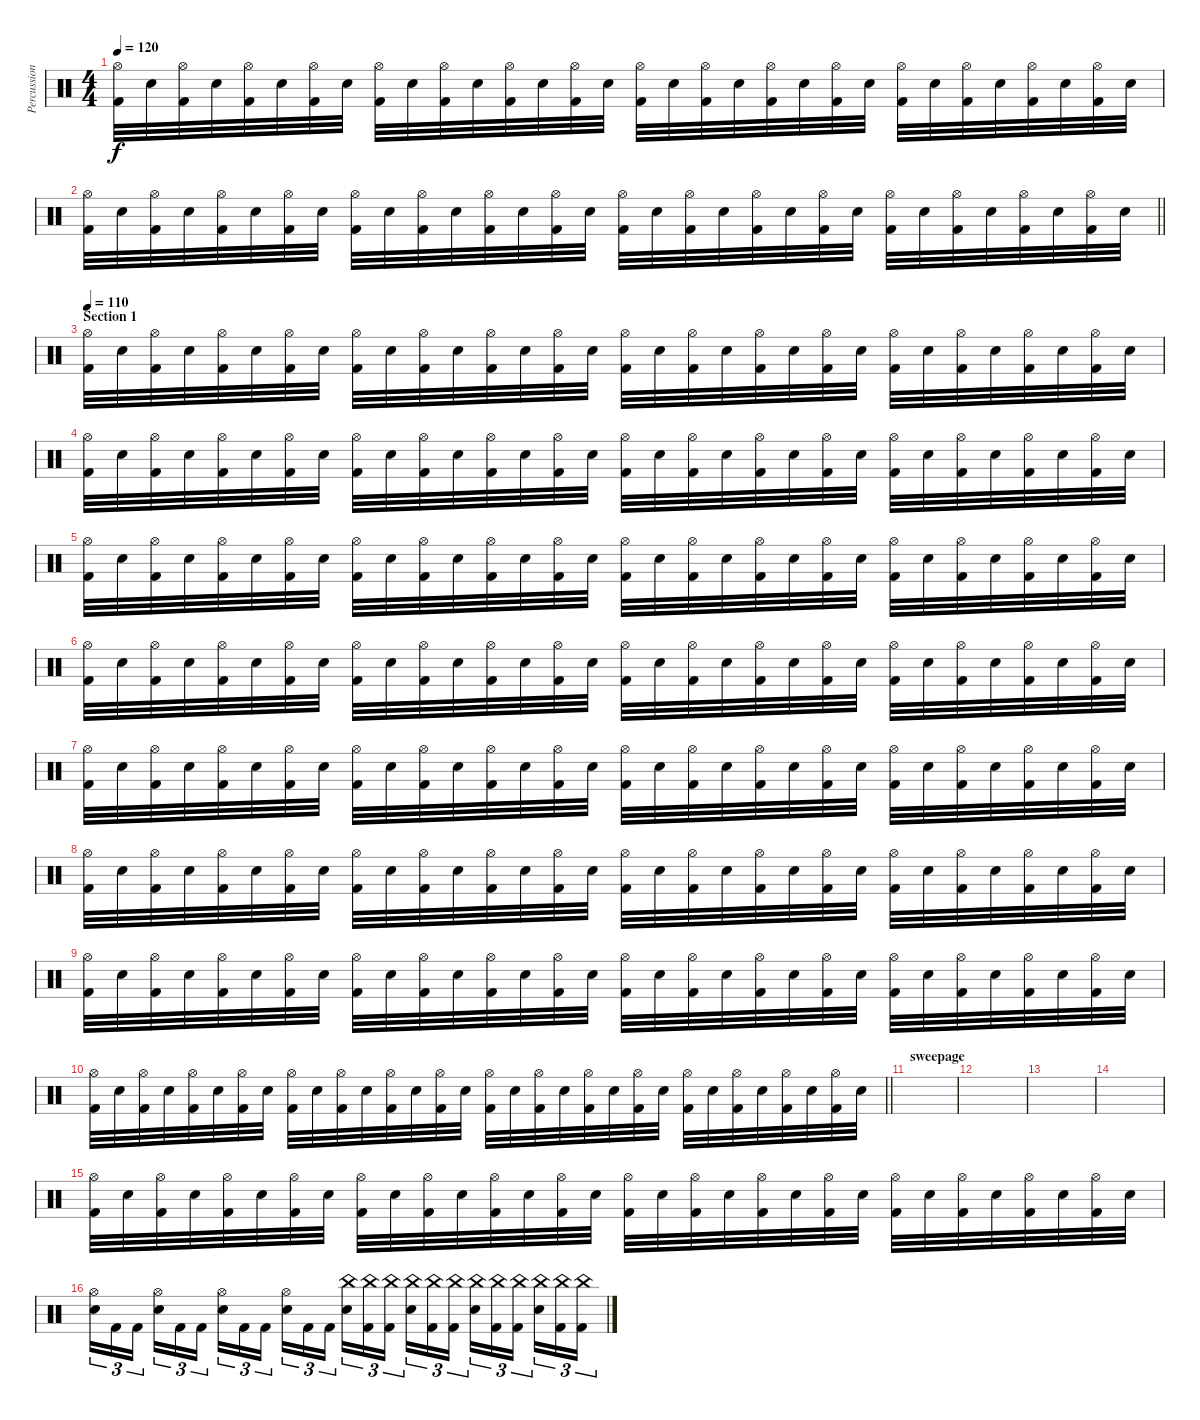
\track ("Percussion" "Percussion") {instrument percussion}
\staff {score}
\articulation defaults
\ts (4 4)
\tempo 120
\clef neutral
\ks c
("Hi-Hat (open)" "Kick (hit) 2").32{dy f} "Snare (hit) 2".32 ("Hi-Hat (open)" "Kick (hit) 2").32 "Snare (hit) 2".32 ("Hi-Hat (open)" "Kick (hit) 2").32 "Snare (hit) 2".32 ("Hi-Hat (open)" "Kick (hit) 2").32 "Snare (hit) 2".32 ("Hi-Hat (open)" "Kick (hit) 2").32 "Snare (hit) 2".32 ("Hi-Hat (open)" "Kick (hit) 2").32 "Snare (hit) 2".32 ("Hi-Hat (open)" "Kick (hit) 2").32 "Snare (hit) 2".32 ("Hi-Hat (open)" "Kick (hit) 2").32 "Snare (hit) 2".32 ("Hi-Hat (open)" "Kick (hit) 2").32 "Snare (hit) 2".32 ("Hi-Hat (open)" "Kick (hit) 2").32 "Snare (hit) 2".32 ("Hi-Hat (open)" "Kick (hit) 2").32 "Snare (hit) 2".32 ("Hi-Hat (open)" "Kick (hit) 2").32 "Snare (hit) 2".32 ("Hi-Hat (open)" "Kick (hit) 2").32 "Snare (hit) 2".32 ("Hi-Hat (open)" "Kick (hit) 2").32 "Snare (hit) 2".32 ("Hi-Hat (open)" "Kick (hit) 2").32 "Snare (hit) 2".32 ("Hi-Hat (open)" "Kick (hit) 2").32 "Snare (hit) 2".32 |
\barLineRight lightlight
("Hi-Hat (open)" "Kick (hit) 2").32 "Snare (hit) 2".32 ("Hi-Hat (open)" "Kick (hit) 2").32 "Snare (hit) 2".32 ("Hi-Hat (open)" "Kick (hit) 2").32 "Snare (hit) 2".32 ("Hi-Hat (open)" "Kick (hit) 2").32 "Snare (hit) 2".32 ("Hi-Hat (open)" "Kick (hit) 2").32 "Snare (hit) 2".32 ("Hi-Hat (open)" "Kick (hit) 2").32 "Snare (hit) 2".32 ("Hi-Hat (open)" "Kick (hit) 2").32 "Snare (hit) 2".32 ("Hi-Hat (open)" "Kick (hit) 2").32 "Snare (hit) 2".32 ("Hi-Hat (open)" "Kick (hit) 2").32 "Snare (hit) 2".32 ("Hi-Hat (open)" "Kick (hit) 2").32 "Snare (hit) 2".32 ("Hi-Hat (open)" "Kick (hit) 2").32 "Snare (hit) 2".32 ("Hi-Hat (open)" "Kick (hit) 2").32 "Snare (hit) 2".32 ("Hi-Hat (open)" "Kick (hit) 2").32 "Snare (hit) 2".32 ("Hi-Hat (open)" "Kick (hit) 2").32 "Snare (hit) 2".32 ("Hi-Hat (open)" "Kick (hit) 2").32 "Snare (hit) 2".32 ("Hi-Hat (open)" "Kick (hit) 2").32 "Snare (hit) 2".32 |
\section ("" "Section 1")
\tempo 110
("Hi-Hat (open)" "Kick (hit) 2").32 "Snare (hit) 2".32 ("Hi-Hat (open)" "Kick (hit) 2").32 "Snare (hit) 2".32 ("Hi-Hat (open)" "Kick (hit) 2").32 "Snare (hit) 2".32 ("Hi-Hat (open)" "Kick (hit) 2").32 "Snare (hit) 2".32 ("Hi-Hat (open)" "Kick (hit) 2").32 "Snare (hit) 2".32 ("Hi-Hat (open)" "Kick (hit) 2").32 "Snare (hit) 2".32 ("Hi-Hat (open)" "Kick (hit) 2").32 "Snare (hit) 2".32 ("Hi-Hat (open)" "Kick (hit) 2").32 "Snare (hit) 2".32 ("Hi-Hat (open)" "Kick (hit) 2").32 "Snare (hit) 2".32 ("Hi-Hat (open)" "Kick (hit) 2").32 "Snare (hit) 2".32 ("Hi-Hat (open)" "Kick (hit) 2").32 "Snare (hit) 2".32 ("Hi-Hat (open)" "Kick (hit) 2").32 "Snare (hit) 2".32 ("Hi-Hat (open)" "Kick (hit) 2").32 "Snare (hit) 2".32 ("Hi-Hat (open)" "Kick (hit) 2").32 "Snare (hit) 2".32 ("Hi-Hat (open)" "Kick (hit) 2").32 "Snare (hit) 2".32 ("Hi-Hat (open)" "Kick (hit) 2").32 "Snare (hit) 2".32 |
("Hi-Hat (open)" "Kick (hit) 2").32 "Snare (hit) 2".32 ("Hi-Hat (open)" "Kick (hit) 2").32 "Snare (hit) 2".32 ("Hi-Hat (open)" "Kick (hit) 2").32 "Snare (hit) 2".32 ("Hi-Hat (open)" "Kick (hit) 2").32 "Snare (hit) 2".32 ("Hi-Hat (open)" "Kick (hit) 2").32 "Snare (hit) 2".32 ("Hi-Hat (open)" "Kick (hit) 2").32 "Snare (hit) 2".32 ("Hi-Hat (open)" "Kick (hit) 2").32 "Snare (hit) 2".32 ("Hi-Hat (open)" "Kick (hit) 2").32 "Snare (hit) 2".32 ("Hi-Hat (open)" "Kick (hit) 2").32 "Snare (hit) 2".32 ("Hi-Hat (open)" "Kick (hit) 2").32 "Snare (hit) 2".32 ("Hi-Hat (open)" "Kick (hit) 2").32 "Snare (hit) 2".32 ("Hi-Hat (open)" "Kick (hit) 2").32 "Snare (hit) 2".32 ("Hi-Hat (open)" "Kick (hit) 2").32 "Snare (hit) 2".32 ("Hi-Hat (open)" "Kick (hit) 2").32 "Snare (hit) 2".32 ("Hi-Hat (open)" "Kick (hit) 2").32 "Snare (hit) 2".32 ("Hi-Hat (open)" "Kick (hit) 2").32 "Snare (hit) 2".32 |
("Hi-Hat (open)" "Kick (hit) 2").32 "Snare (hit) 2".32 ("Hi-Hat (open)" "Kick (hit) 2").32 "Snare (hit) 2".32 ("Hi-Hat (open)" "Kick (hit) 2").32 "Snare (hit) 2".32 ("Hi-Hat (open)" "Kick (hit) 2").32 "Snare (hit) 2".32 ("Hi-Hat (open)" "Kick (hit) 2").32 "Snare (hit) 2".32 ("Hi-Hat (open)" "Kick (hit) 2").32 "Snare (hit) 2".32 ("Hi-Hat (open)" "Kick (hit) 2").32 "Snare (hit) 2".32 ("Hi-Hat (open)" "Kick (hit) 2").32 "Snare (hit) 2".32 ("Hi-Hat (open)" "Kick (hit) 2").32 "Snare (hit) 2".32 ("Hi-Hat (open)" "Kick (hit) 2").32 "Snare (hit) 2".32 ("Hi-Hat (open)" "Kick (hit) 2").32 "Snare (hit) 2".32 ("Hi-Hat (open)" "Kick (hit) 2").32 "Snare (hit) 2".32 ("Hi-Hat (open)" "Kick (hit) 2").32 "Snare (hit) 2".32 ("Hi-Hat (open)" "Kick (hit) 2").32 "Snare (hit) 2".32 ("Hi-Hat (open)" "Kick (hit) 2").32 "Snare (hit) 2".32 ("Hi-Hat (open)" "Kick (hit) 2").32 "Snare (hit) 2".32 |
("Hi-Hat (open)" "Kick (hit) 2").32 "Snare (hit) 2".32 ("Hi-Hat (open)" "Kick (hit) 2").32 "Snare (hit) 2".32 ("Hi-Hat (open)" "Kick (hit) 2").32 "Snare (hit) 2".32 ("Hi-Hat (open)" "Kick (hit) 2").32 "Snare (hit) 2".32 ("Hi-Hat (open)" "Kick (hit) 2").32 "Snare (hit) 2".32 ("Hi-Hat (open)" "Kick (hit) 2").32 "Snare (hit) 2".32 ("Hi-Hat (open)" "Kick (hit) 2").32 "Snare (hit) 2".32 ("Hi-Hat (open)" "Kick (hit) 2").32 "Snare (hit) 2".32 ("Hi-Hat (open)" "Kick (hit) 2").32 "Snare (hit) 2".32 ("Hi-Hat (open)" "Kick (hit) 2").32 "Snare (hit) 2".32 ("Hi-Hat (open)" "Kick (hit) 2").32 "Snare (hit) 2".32 ("Hi-Hat (open)" "Kick (hit) 2").32 "Snare (hit) 2".32 ("Hi-Hat (open)" "Kick (hit) 2").32 "Snare (hit) 2".32 ("Hi-Hat (open)" "Kick (hit) 2").32 "Snare (hit) 2".32 ("Hi-Hat (open)" "Kick (hit) 2").32 "Snare (hit) 2".32 ("Hi-Hat (open)" "Kick (hit) 2").32 "Snare (hit) 2".32 |
("Hi-Hat (open)" "Kick (hit) 2").32 "Snare (hit) 2".32 ("Hi-Hat (open)" "Kick (hit) 2").32 "Snare (hit) 2".32 ("Hi-Hat (open)" "Kick (hit) 2").32 "Snare (hit) 2".32 ("Hi-Hat (open)" "Kick (hit) 2").32 "Snare (hit) 2".32 ("Hi-Hat (open)" "Kick (hit) 2").32 "Snare (hit) 2".32 ("Hi-Hat (open)" "Kick (hit) 2").32 "Snare (hit) 2".32 ("Hi-Hat (open)" "Kick (hit) 2").32 "Snare (hit) 2".32 ("Hi-Hat (open)" "Kick (hit) 2").32 "Snare (hit) 2".32 ("Hi-Hat (open)" "Kick (hit) 2").32 "Snare (hit) 2".32 ("Hi-Hat (open)" "Kick (hit) 2").32 "Snare (hit) 2".32 ("Hi-Hat (open)" "Kick (hit) 2").32 "Snare (hit) 2".32 ("Hi-Hat (open)" "Kick (hit) 2").32 "Snare (hit) 2".32 ("Hi-Hat (open)" "Kick (hit) 2").32 "Snare (hit) 2".32 ("Hi-Hat (open)" "Kick (hit) 2").32 "Snare (hit) 2".32 ("Hi-Hat (open)" "Kick (hit) 2").32 "Snare (hit) 2".32 ("Hi-Hat (open)" "Kick (hit) 2").32 "Snare (hit) 2".32 |
("Hi-Hat (open)" "Kick (hit) 2").32 "Snare (hit) 2".32 ("Hi-Hat (open)" "Kick (hit) 2").32 "Snare (hit) 2".32 ("Hi-Hat (open)" "Kick (hit) 2").32 "Snare (hit) 2".32 ("Hi-Hat (open)" "Kick (hit) 2").32 "Snare (hit) 2".32 ("Hi-Hat (open)" "Kick (hit) 2").32 "Snare (hit) 2".32 ("Hi-Hat (open)" "Kick (hit) 2").32 "Snare (hit) 2".32 ("Hi-Hat (open)" "Kick (hit) 2").32 "Snare (hit) 2".32 ("Hi-Hat (open)" "Kick (hit) 2").32 "Snare (hit) 2".32 ("Hi-Hat (open)" "Kick (hit) 2").32 "Snare (hit) 2".32 ("Hi-Hat (open)" "Kick (hit) 2").32 "Snare (hit) 2".32 ("Hi-Hat (open)" "Kick (hit) 2").32 "Snare (hit) 2".32 ("Hi-Hat (open)" "Kick (hit) 2").32 "Snare (hit) 2".32 ("Hi-Hat (open)" "Kick (hit) 2").32 "Snare (hit) 2".32 ("Hi-Hat (open)" "Kick (hit) 2").32 "Snare (hit) 2".32 ("Hi-Hat (open)" "Kick (hit) 2").32 "Snare (hit) 2".32 ("Hi-Hat (open)" "Kick (hit) 2").32 "Snare (hit) 2".32 |
("Hi-Hat (open)" "Kick (hit) 2").32 "Snare (hit) 2".32 ("Hi-Hat (open)" "Kick (hit) 2").32 "Snare (hit) 2".32 ("Hi-Hat (open)" "Kick (hit) 2").32 "Snare (hit) 2".32 ("Hi-Hat (open)" "Kick (hit) 2").32 "Snare (hit) 2".32 ("Hi-Hat (open)" "Kick (hit) 2").32 "Snare (hit) 2".32 ("Hi-Hat (open)" "Kick (hit) 2").32 "Snare (hit) 2".32 ("Hi-Hat (open)" "Kick (hit) 2").32 "Snare (hit) 2".32 ("Hi-Hat (open)" "Kick (hit) 2").32 "Snare (hit) 2".32 ("Hi-Hat (open)" "Kick (hit) 2").32 "Snare (hit) 2".32 ("Hi-Hat (open)" "Kick (hit) 2").32 "Snare (hit) 2".32 ("Hi-Hat (open)" "Kick (hit) 2").32 "Snare (hit) 2".32 ("Hi-Hat (open)" "Kick (hit) 2").32 "Snare (hit) 2".32 ("Hi-Hat (open)" "Kick (hit) 2").32 "Snare (hit) 2".32 ("Hi-Hat (open)" "Kick (hit) 2").32 "Snare (hit) 2".32 ("Hi-Hat (open)" "Kick (hit) 2").32 "Snare (hit) 2".32 ("Hi-Hat (open)" "Kick (hit) 2").32 "Snare (hit) 2".32 |
\barLineRight lightlight
("Hi-Hat (open)" "Kick (hit) 2").32 "Snare (hit) 2".32 ("Hi-Hat (open)" "Kick (hit) 2").32 "Snare (hit) 2".32 ("Hi-Hat (open)" "Kick (hit) 2").32 "Snare (hit) 2".32 ("Hi-Hat (open)" "Kick (hit) 2").32 "Snare (hit) 2".32 ("Hi-Hat (open)" "Kick (hit) 2").32 "Snare (hit) 2".32 ("Hi-Hat (open)" "Kick (hit) 2").32 "Snare (hit) 2".32 ("Hi-Hat (open)" "Kick (hit) 2").32 "Snare (hit) 2".32 ("Hi-Hat (open)" "Kick (hit) 2").32 "Snare (hit) 2".32 ("Hi-Hat (open)" "Kick (hit) 2").32 "Snare (hit) 2".32 ("Hi-Hat (open)" "Kick (hit) 2").32 "Snare (hit) 2".32 ("Hi-Hat (open)" "Kick (hit) 2").32 "Snare (hit) 2".32 ("Hi-Hat (open)" "Kick (hit) 2").32 "Snare (hit) 2".32 ("Hi-Hat (open)" "Kick (hit) 2").32 "Snare (hit) 2".32 ("Hi-Hat (open)" "Kick (hit) 2").32 "Snare (hit) 2".32 ("Hi-Hat (open)" "Kick (hit) 2").32 "Snare (hit) 2".32 ("Hi-Hat (open)" "Kick (hit) 2").32 "Snare (hit) 2".32 |
\section ("" "sweepage")
|
|
|
|
("Hi-Hat (open)" "Kick (hit) 2").32 "Snare (hit) 2".32 ("Hi-Hat (open)" "Kick (hit) 2").32 "Snare (hit) 2".32 ("Hi-Hat (open)" "Kick (hit) 2").32 "Snare (hit) 2".32 ("Hi-Hat (open)" "Kick (hit) 2").32 "Snare (hit) 2".32 ("Hi-Hat (open)" "Kick (hit) 2").32 "Snare (hit) 2".32 ("Hi-Hat (open)" "Kick (hit) 2").32 "Snare (hit) 2".32 ("Hi-Hat (open)" "Kick (hit) 2").32 "Snare (hit) 2".32 ("Hi-Hat (open)" "Kick (hit) 2").32 "Snare (hit) 2".32 ("Hi-Hat (open)" "Kick (hit) 2").32 "Snare (hit) 2".32 ("Hi-Hat (open)" "Kick (hit) 2").32 "Snare (hit) 2".32 ("Hi-Hat (open)" "Kick (hit) 2").32 "Snare (hit) 2".32 ("Hi-Hat (open)" "Kick (hit) 2").32 "Snare (hit) 2".32 ("Hi-Hat (open)" "Kick (hit) 2").32 "Snare (hit) 2".32 ("Hi-Hat (open)" "Kick (hit) 2").32 "Snare (hit) 2".32 ("Hi-Hat (open)" "Kick (hit) 2").32 "Snare (hit) 2".32 ("Hi-Hat (open)" "Kick (hit) 2").32 "Snare (hit) 2".32 |
("Hi-Hat (open)" "Snare (hit) 2").16{tu (3 2)} "Kick (hit) 2".16{tu (3 2)} "Kick (hit) 2".16{tu (3 2) beam splitsecondary} ("Hi-Hat (open)" "Snare (hit) 2").16{tu (3 2)} "Kick (hit) 2".16{tu (3 2)} "Kick (hit) 2".16{tu (3 2)} ("Hi-Hat (open)" "Snare (hit) 2").16{tu (3 2)} "Kick (hit) 2".16{tu (3 2)} "Kick (hit) 2".16{tu (3 2) beam splitsecondary} ("Hi-Hat (open)" "Snare (hit) 2").16{tu (3 2)} "Kick (hit) 2".16{tu (3 2)} "Kick (hit) 2".16{tu (3 2)} ("China (hit)" "Snare (hit) 2").16{tu (3 2)} ("China (hit)" "Kick (hit) 2").16{tu (3 2)} ("China (hit)" "Kick (hit) 2").16{tu (3 2) beam splitsecondary} ("China (hit)" "Snare (hit) 2").16{tu (3 2)} ("China (hit)" "Kick (hit) 2").16{tu (3 2)} ("China (hit)" "Kick (hit) 2").16{tu (3 2)} ("China (hit)" "Snare (hit) 2").16{tu (3 2)} ("China (hit)" "Kick (hit) 2").16{tu (3 2)} ("China (hit)" "Kick (hit) 2").16{tu (3 2) beam splitsecondary} ("China (hit)" "Snare (hit) 2").16{tu (3 2)} ("China (hit)" "Kick (hit) 2").16{tu (3 2)} ("China (hit)" "Kick (hit) 2").16{tu (3 2)}
